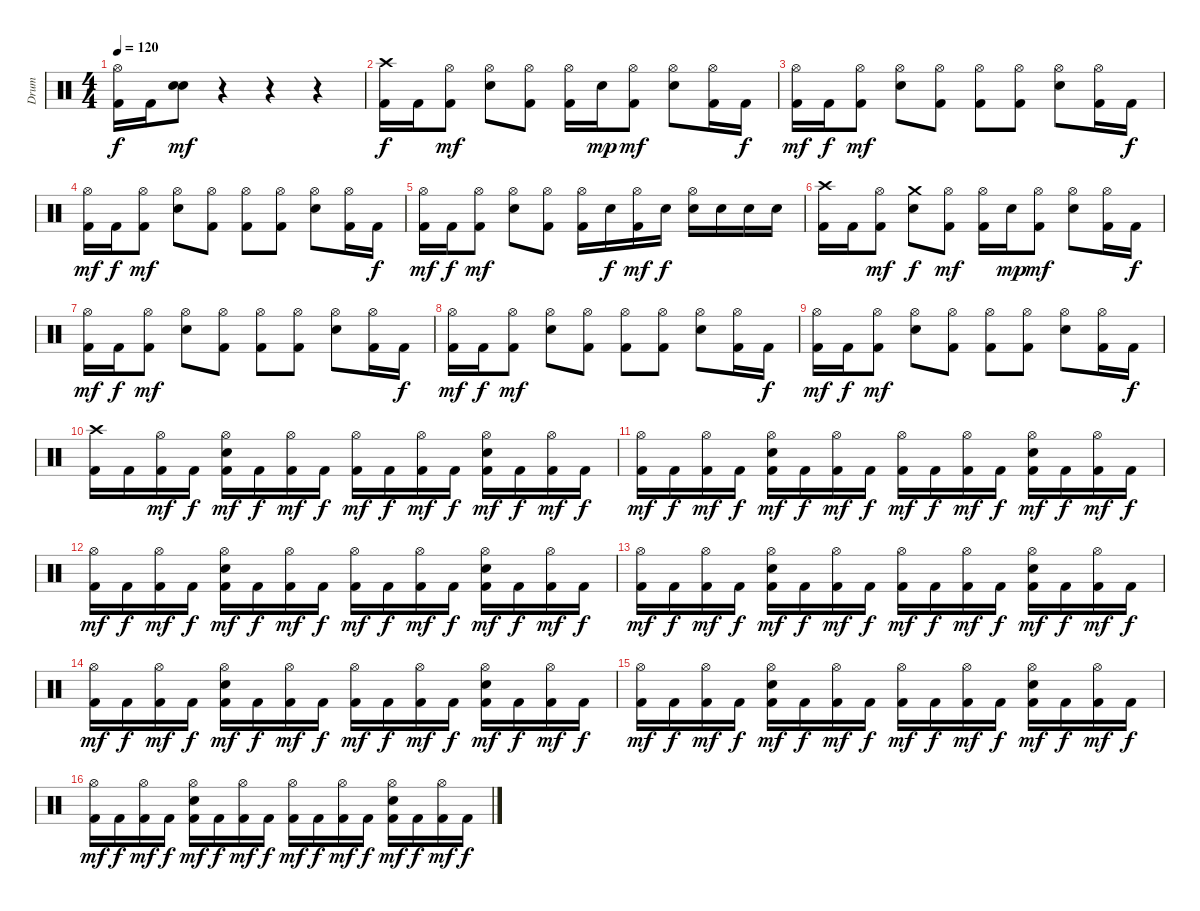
\track ("Drum" "Drum") {instrument percussion}
\staff {score}
\articulation defaults
\ts (4 4)
\tempo 120
\clef neutral
\ks c
("Hi-Hat (open)" "Kick (hit) 2").16{dy f} "Kick (hit) 2".16 ("Electric Snare (hit)" "Electric Snare (hit)").8{dy mf} r.4 r.4 r.4 |
("Crash high (hit)" "Kick (hit) 2").16{dy f} "Kick (hit) 2".16 ("Hi-Hat (open)" "Kick (hit) 2").8{dy mf} ("Hi-Hat (open)" "Electric Snare (hit)").8 ("Hi-Hat (open)" "Kick (hit) 2").8 ("Hi-Hat (open)" "Kick (hit) 2").16 "Electric Snare (hit)".16{dy mp} ("Hi-Hat (open)" "Kick (hit) 2").8{dy mf} ("Hi-Hat (open)" "Electric Snare (hit)").8 ("Hi-Hat (open)" "Kick (hit) 2").16 "Kick (hit) 2".16{dy f} |
("Hi-Hat (open)" "Kick (hit) 2").16{dy mf} "Kick (hit) 2".16{dy f} ("Hi-Hat (open)" "Kick (hit) 2").8{dy mf} ("Hi-Hat (open)" "Electric Snare (hit)").8 ("Hi-Hat (open)" "Kick (hit) 2").8 ("Hi-Hat (open)" "Kick (hit) 2").8 ("Hi-Hat (open)" "Kick (hit) 2").8 ("Hi-Hat (open)" "Electric Snare (hit)").8 ("Hi-Hat (open)" "Kick (hit) 2").16 "Kick (hit) 2".16{dy f} |
("Hi-Hat (open)" "Kick (hit) 2").16{dy mf} "Kick (hit) 2".16{dy f} ("Hi-Hat (open)" "Kick (hit) 2").8{dy mf} ("Hi-Hat (open)" "Electric Snare (hit)").8 ("Hi-Hat (open)" "Kick (hit) 2").8 ("Hi-Hat (open)" "Kick (hit) 2").8 ("Hi-Hat (open)" "Kick (hit) 2").8 ("Hi-Hat (open)" "Electric Snare (hit)").8 ("Hi-Hat (open)" "Kick (hit) 2").16 "Kick (hit) 2".16{dy f} |
("Hi-Hat (open)" "Kick (hit) 2").16{dy mf} "Kick (hit) 2".16{dy f} ("Hi-Hat (open)" "Kick (hit) 2").8{dy mf} ("Hi-Hat (open)" "Electric Snare (hit)").8 ("Hi-Hat (open)" "Kick (hit) 2").8 ("Hi-Hat (open)" "Kick (hit) 2").16 "Electric Snare (hit)".16{dy f} ("Hi-Hat (open)" "Kick (hit) 2").16{dy mf} "Electric Snare (hit)".16{dy f} ("Hi-Hat (open)" "Electric Snare (hit)").16 "Electric Snare (hit)".16 "Electric Snare (hit)".16 "Electric Snare (hit)".16 |
("Crash high (hit)" "Kick (hit) 2").16 "Kick (hit) 2".16 ("Hi-Hat (open)" "Kick (hit) 2").8{dy mf} ("Crash medium (hit)" "Electric Snare (hit)").8{dy f} ("Hi-Hat (open)" "Kick (hit) 2").8{dy mf} ("Hi-Hat (open)" "Kick (hit) 2").16 "Electric Snare (hit)".16{dy mp} ("Hi-Hat (open)" "Kick (hit) 2").8{dy mf} ("Hi-Hat (open)" "Electric Snare (hit)").8 ("Hi-Hat (open)" "Kick (hit) 2").16 "Kick (hit) 2".16{dy f} |
("Hi-Hat (open)" "Kick (hit) 2").16{dy mf} "Kick (hit) 2".16{dy f} ("Hi-Hat (open)" "Kick (hit) 2").8{dy mf} ("Hi-Hat (open)" "Electric Snare (hit)").8 ("Hi-Hat (open)" "Kick (hit) 2").8 ("Hi-Hat (open)" "Kick (hit) 2").8 ("Hi-Hat (open)" "Kick (hit) 2").8 ("Hi-Hat (open)" "Electric Snare (hit)").8 ("Hi-Hat (open)" "Kick (hit) 2").16 "Kick (hit) 2".16{dy f} |
("Hi-Hat (open)" "Kick (hit) 2").16{dy mf} "Kick (hit) 2".16{dy f} ("Hi-Hat (open)" "Kick (hit) 2").8{dy mf} ("Hi-Hat (open)" "Electric Snare (hit)").8 ("Hi-Hat (open)" "Kick (hit) 2").8 ("Hi-Hat (open)" "Kick (hit) 2").8 ("Hi-Hat (open)" "Kick (hit) 2").8 ("Hi-Hat (open)" "Electric Snare (hit)").8 ("Hi-Hat (open)" "Kick (hit) 2").16 "Kick (hit) 2".16{dy f} |
("Hi-Hat (open)" "Kick (hit) 2").16{dy mf} "Kick (hit) 2".16{dy f} ("Hi-Hat (open)" "Kick (hit) 2").8{dy mf} ("Hi-Hat (open)" "Electric Snare (hit)").8 ("Hi-Hat (open)" "Kick (hit) 2").8 ("Hi-Hat (open)" "Kick (hit) 2").8 ("Hi-Hat (open)" "Kick (hit) 2").8 ("Hi-Hat (open)" "Electric Snare (hit)").8 ("Hi-Hat (open)" "Kick (hit) 2").16 "Kick (hit) 2".16{dy f} |
("Crash high (hit)" "Kick (hit) 2").16 "Kick (hit) 2".16 ("Hi-Hat (open)" "Kick (hit) 2").16{dy mf} "Kick (hit) 2".16{dy f} ("Hi-Hat (open)" "Electric Snare (hit)" "Kick (hit) 2").16{dy mf} "Kick (hit) 2".16{dy f} ("Hi-Hat (open)" "Kick (hit) 2").16{dy mf} "Kick (hit) 2".16{dy f} ("Hi-Hat (open)" "Kick (hit) 2").16{dy mf} "Kick (hit) 2".16{dy f} ("Hi-Hat (open)" "Kick (hit) 2").16{dy mf} "Kick (hit) 2".16{dy f} ("Hi-Hat (open)" "Electric Snare (hit)" "Kick (hit) 2").16{dy mf} "Kick (hit) 2".16{dy f} ("Hi-Hat (open)" "Kick (hit) 2").16{dy mf} "Kick (hit) 2".16{dy f} |
("Hi-Hat (open)" "Kick (hit) 2").16{dy mf} "Kick (hit) 2".16{dy f} ("Hi-Hat (open)" "Kick (hit) 2").16{dy mf} "Kick (hit) 2".16{dy f} ("Hi-Hat (open)" "Electric Snare (hit)" "Kick (hit) 2").16{dy mf} "Kick (hit) 2".16{dy f} ("Hi-Hat (open)" "Kick (hit) 2").16{dy mf} "Kick (hit) 2".16{dy f} ("Hi-Hat (open)" "Kick (hit) 2").16{dy mf} "Kick (hit) 2".16{dy f} ("Hi-Hat (open)" "Kick (hit) 2").16{dy mf} "Kick (hit) 2".16{dy f} ("Hi-Hat (open)" "Electric Snare (hit)" "Kick (hit) 2").16{dy mf} "Kick (hit) 2".16{dy f} ("Hi-Hat (open)" "Kick (hit) 2").16{dy mf} "Kick (hit) 2".16{dy f} |
("Hi-Hat (open)" "Kick (hit) 2").16{dy mf} "Kick (hit) 2".16{dy f} ("Hi-Hat (open)" "Kick (hit) 2").16{dy mf} "Kick (hit) 2".16{dy f} ("Hi-Hat (open)" "Electric Snare (hit)" "Kick (hit) 2").16{dy mf} "Kick (hit) 2".16{dy f} ("Hi-Hat (open)" "Kick (hit) 2").16{dy mf} "Kick (hit) 2".16{dy f} ("Hi-Hat (open)" "Kick (hit) 2").16{dy mf} "Kick (hit) 2".16{dy f} ("Hi-Hat (open)" "Kick (hit) 2").16{dy mf} "Kick (hit) 2".16{dy f} ("Hi-Hat (open)" "Electric Snare (hit)" "Kick (hit) 2").16{dy mf} "Kick (hit) 2".16{dy f} ("Hi-Hat (open)" "Kick (hit) 2").16{dy mf} "Kick (hit) 2".16{dy f} |
("Hi-Hat (open)" "Kick (hit) 2").16{dy mf} "Kick (hit) 2".16{dy f} ("Hi-Hat (open)" "Kick (hit) 2").16{dy mf} "Kick (hit) 2".16{dy f} ("Hi-Hat (open)" "Electric Snare (hit)" "Kick (hit) 2").16{dy mf} "Kick (hit) 2".16{dy f} ("Hi-Hat (open)" "Kick (hit) 2").16{dy mf} "Kick (hit) 2".16{dy f} ("Hi-Hat (open)" "Kick (hit) 2").16{dy mf} "Kick (hit) 2".16{dy f} ("Hi-Hat (open)" "Kick (hit) 2").16{dy mf} "Kick (hit) 2".16{dy f} ("Hi-Hat (open)" "Electric Snare (hit)" "Kick (hit) 2").16{dy mf} "Kick (hit) 2".16{dy f} ("Hi-Hat (open)" "Kick (hit) 2").16{dy mf} "Kick (hit) 2".16{dy f} |
("Hi-Hat (open)" "Kick (hit) 2").16{dy mf} "Kick (hit) 2".16{dy f} ("Hi-Hat (open)" "Kick (hit) 2").16{dy mf} "Kick (hit) 2".16{dy f} ("Hi-Hat (open)" "Electric Snare (hit)" "Kick (hit) 2").16{dy mf} "Kick (hit) 2".16{dy f} ("Hi-Hat (open)" "Kick (hit) 2").16{dy mf} "Kick (hit) 2".16{dy f} ("Hi-Hat (open)" "Kick (hit) 2").16{dy mf} "Kick (hit) 2".16{dy f} ("Hi-Hat (open)" "Kick (hit) 2").16{dy mf} "Kick (hit) 2".16{dy f} ("Hi-Hat (open)" "Electric Snare (hit)" "Kick (hit) 2").16{dy mf} "Kick (hit) 2".16{dy f} ("Hi-Hat (open)" "Kick (hit) 2").16{dy mf} "Kick (hit) 2".16{dy f} |
("Hi-Hat (open)" "Kick (hit) 2").16{dy mf} "Kick (hit) 2".16{dy f} ("Hi-Hat (open)" "Kick (hit) 2").16{dy mf} "Kick (hit) 2".16{dy f} ("Hi-Hat (open)" "Electric Snare (hit)" "Kick (hit) 2").16{dy mf} "Kick (hit) 2".16{dy f} ("Hi-Hat (open)" "Kick (hit) 2").16{dy mf} "Kick (hit) 2".16{dy f} ("Hi-Hat (open)" "Kick (hit) 2").16{dy mf} "Kick (hit) 2".16{dy f} ("Hi-Hat (open)" "Kick (hit) 2").16{dy mf} "Kick (hit) 2".16{dy f} ("Hi-Hat (open)" "Electric Snare (hit)" "Kick (hit) 2").16{dy mf} "Kick (hit) 2".16{dy f} ("Hi-Hat (open)" "Kick (hit) 2").16{dy mf} "Kick (hit) 2".16{dy f} |
("Hi-Hat (open)" "Kick (hit) 2").16{dy mf} "Kick (hit) 2".16{dy f} ("Hi-Hat (open)" "Kick (hit) 2").16{dy mf} "Kick (hit) 2".16{dy f} ("Hi-Hat (open)" "Electric Snare (hit)" "Kick (hit) 2").16{dy mf} "Kick (hit) 2".16{dy f} ("Hi-Hat (open)" "Kick (hit) 2").16{dy mf} "Kick (hit) 2".16{dy f} ("Hi-Hat (open)" "Kick (hit) 2").16{dy mf} "Kick (hit) 2".16{dy f} ("Hi-Hat (open)" "Kick (hit) 2").16{dy mf} "Kick (hit) 2".16{dy f} ("Hi-Hat (open)" "Electric Snare (hit)" "Kick (hit) 2").16{dy mf} "Kick (hit) 2".16{dy f} ("Hi-Hat (open)" "Kick (hit) 2").16{dy mf} "Kick (hit) 2".16{dy f}
